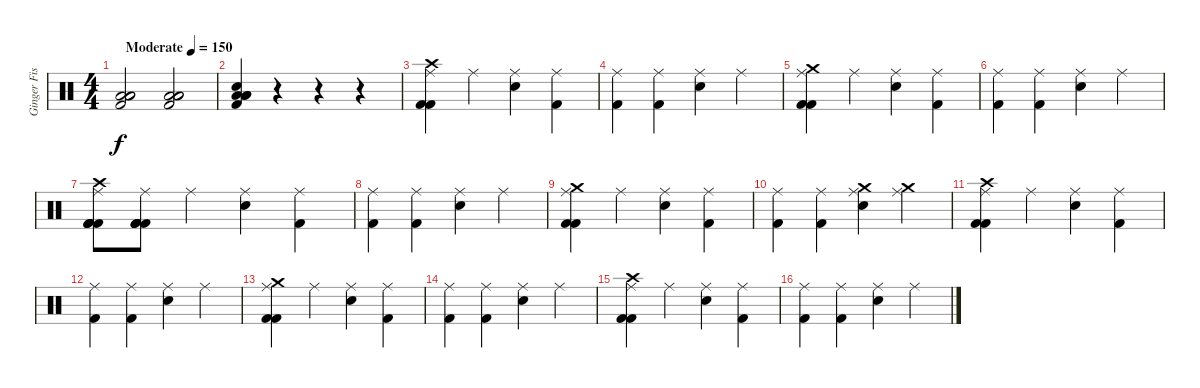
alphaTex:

\track ("Ginger Fish" "Ginger Fis") {instrument percussion}
\staff {score}
\articulation defaults
\ts (4 4)
\tempo (150 "Moderate")
\clef neutral
\ks c
("Kick (hit) 2" "Low Tom (hit)" "Low Tom (hit)" "Low Tom (hit)").2{dy f} ("Kick (hit) 2" "Low Tom (hit)" "Low Tom (hit)" "Low Tom (hit)").2 |
("Kick (hit) 2" "Electric Snare (hit)" "Low Tom (hit)" "Low Tom (hit)" "Low Tom (hit)").4 r.4 r.4 r.4 |
("Crash high (hit)" "Ride (middle)" "Kick (hit) 2" "Kick (hit) 2").4 "Ride (middle)".4 ("Ride (middle)" "Electric Snare (hit)").4 ("Ride (middle)" "Kick (hit) 2").4 |
("Ride (middle)" "Kick (hit) 2").4 ("Ride (middle)" "Kick (hit) 2").4 ("Ride (middle)" "Electric Snare (hit)").4 "Ride (middle)".4 |
("Crash medium (hit)" "Ride (middle)" "Kick (hit) 2" "Kick (hit) 2").4 "Ride (middle)".4 ("Ride (middle)" "Electric Snare (hit)").4 ("Ride (middle)" "Kick (hit) 2").4 |
("Ride (middle)" "Kick (hit) 2").4 ("Ride (middle)" "Kick (hit) 2").4 ("Ride (middle)" "Electric Snare (hit)").4 "Ride (middle)".4 |
("Crash high (hit)" "Ride (middle)" "Kick (hit) 2" "Kick (hit) 2" "Kick (hit) 2" "Kick (hit) 2").8 ("Ride (middle)" "Kick (hit) 2" "Kick (hit) 2" "Kick (hit) 2" "Kick (hit) 2").8 "Ride (middle)".4 ("Ride (middle)" "Electric Snare (hit)").4 ("Ride (middle)" "Kick (hit) 2").4 |
("Ride (middle)" "Kick (hit) 2").4 ("Ride (middle)" "Kick (hit) 2").4 ("Ride (middle)" "Electric Snare (hit)").4 "Ride (middle)".4 |
("Crash medium (hit)" "Ride (middle)" "Kick (hit) 2" "Kick (hit) 2").4 "Ride (middle)".4 ("Ride (middle)" "Electric Snare (hit)").4 ("Ride (middle)" "Kick (hit) 2").4 |
("Ride (middle)" "Kick (hit) 2").4 ("Ride (middle)" "Kick (hit) 2").4 ("Crash medium (hit)" "Ride (middle)" "Electric Snare (hit)").4 ("Crash medium (hit)" "Ride (middle)").4 |
("Crash high (hit)" "Ride (middle)" "Kick (hit) 2" "Kick (hit) 2").4 "Ride (middle)".4 ("Ride (middle)" "Electric Snare (hit)").4 ("Ride (middle)" "Kick (hit) 2").4 |
("Ride (middle)" "Kick (hit) 2").4 ("Ride (middle)" "Kick (hit) 2").4 ("Ride (middle)" "Electric Snare (hit)").4 "Ride (middle)".4 |
("Crash medium (hit)" "Ride (middle)" "Kick (hit) 2" "Kick (hit) 2").4 "Ride (middle)".4 ("Ride (middle)" "Electric Snare (hit)").4 ("Ride (middle)" "Kick (hit) 2").4 |
("Ride (middle)" "Kick (hit) 2").4 ("Ride (middle)" "Kick (hit) 2").4 ("Ride (middle)" "Electric Snare (hit)").4 "Ride (middle)".4 |
("Crash high (hit)" "Ride (middle)" "Kick (hit) 2" "Kick (hit) 2").4 "Ride (middle)".4 ("Ride (middle)" "Electric Snare (hit)").4 ("Ride (middle)" "Kick (hit) 2").4 |
("Ride (middle)" "Kick (hit) 2").4 ("Ride (middle)" "Kick (hit) 2").4 ("Ride (middle)" "Electric Snare (hit)").4 "Ride (middle)".4
